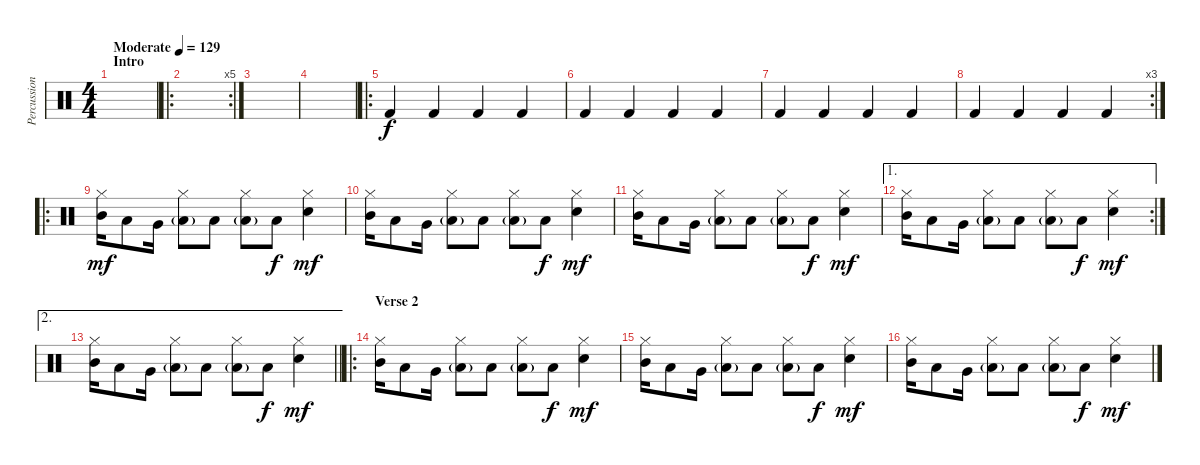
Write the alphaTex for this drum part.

\track ("Percussion" "Percussion") {instrument percussion}
\staff {score}
\articulation defaults
\ts (4 4)
\section ("" "Intro")
\tempo (129 "Moderate")
\clef neutral
\ks c
|
\ro
\rc 5
|
|
|
\ro "Kick (hit) 2".4 "Kick (hit) 2".4 "Kick (hit) 2".4 "Kick (hit) 2".4
|
"Kick (hit) 2".4 "Kick (hit) 2".4 "Kick (hit) 2".4 "Kick (hit) 2".4 |
"Kick (hit) 2".4 "Kick (hit) 2".4 "Kick (hit) 2".4 "Kick (hit) 2".4 |
\rc 3 "Kick (hit) 2".4 "Kick (hit) 2".4 "Kick (hit) 2".4 "Kick (hit) 2".4
|
\ro
("Mid Tom (hit)" "Hi-Hat (closed)").16{dy mf} "Low Tom (hit)".8 "Very Low Tom (hit)".16 ("Low Floor Tom (hit)"{g} "Hi-Hat (closed)").8 "Low Floor Tom (hit)".8 ("Low Floor Tom (hit)"{g} "Hi-Hat (closed)").8 "Low Floor Tom (hit)".8{dy f} ("Hi-Hat (closed)" "Electric Snare (hit)").4{dy mf} |
("Mid Tom (hit)" "Hi-Hat (closed)").16 "Low Tom (hit)".8 "Very Low Tom (hit)".16 ("Low Floor Tom (hit)"{g} "Hi-Hat (closed)").8 "Low Floor Tom (hit)".8 ("Low Floor Tom (hit)"{g} "Hi-Hat (closed)").8 "Low Floor Tom (hit)".8{dy f} ("Hi-Hat (closed)" "Electric Snare (hit)").4{dy mf} |
("Mid Tom (hit)" "Hi-Hat (closed)").16 "Low Tom (hit)".8 "Very Low Tom (hit)".16 ("Low Floor Tom (hit)"{g} "Hi-Hat (closed)").8 "Low Floor Tom (hit)".8 ("Low Floor Tom (hit)"{g} "Hi-Hat (closed)").8 "Low Floor Tom (hit)".8{dy f} ("Hi-Hat (closed)" "Electric Snare (hit)").4{dy mf} |
\ae 1
\rc 2
("Mid Tom (hit)" "Hi-Hat (closed)").16 "Low Tom (hit)".8 "Very Low Tom (hit)".16 ("Low Floor Tom (hit)"{g} "Hi-Hat (closed)").8 "Low Floor Tom (hit)".8 ("Low Floor Tom (hit)"{g} "Hi-Hat (closed)").8 "Low Floor Tom (hit)".8{dy f} ("Hi-Hat (closed)" "Electric Snare (hit)").4{dy mf} |
\ae 2
\barLineRight lightlight
("Mid Tom (hit)" "Hi-Hat (closed)").16 "Low Tom (hit)".8 "Very Low Tom (hit)".16 ("Low Floor Tom (hit)"{g} "Hi-Hat (closed)").8 "Low Floor Tom (hit)".8 ("Low Floor Tom (hit)"{g} "Hi-Hat (closed)").8 "Low Floor Tom (hit)".8{dy f} ("Hi-Hat (closed)" "Electric Snare (hit)").4{dy mf} |
\ro
\section ("" "Verse 2")
("Mid Tom (hit)" "Hi-Hat (closed)").16 "Low Tom (hit)".8 "Very Low Tom (hit)".16 ("Low Floor Tom (hit)"{g} "Hi-Hat (closed)").8 "Low Floor Tom (hit)".8 ("Low Floor Tom (hit)"{g} "Hi-Hat (closed)").8 "Low Floor Tom (hit)".8{dy f} ("Hi-Hat (closed)" "Electric Snare (hit)").4{dy mf} |
("Mid Tom (hit)" "Hi-Hat (closed)").16 "Low Tom (hit)".8 "Very Low Tom (hit)".16 ("Low Floor Tom (hit)"{g} "Hi-Hat (closed)").8 "Low Floor Tom (hit)".8 ("Low Floor Tom (hit)"{g} "Hi-Hat (closed)").8 "Low Floor Tom (hit)".8{dy f} ("Hi-Hat (closed)" "Electric Snare (hit)").4{dy mf} |
("Mid Tom (hit)" "Hi-Hat (closed)").16 "Low Tom (hit)".8 "Very Low Tom (hit)".16 ("Low Floor Tom (hit)"{g} "Hi-Hat (closed)").8 "Low Floor Tom (hit)".8 ("Low Floor Tom (hit)"{g} "Hi-Hat (closed)").8 "Low Floor Tom (hit)".8{dy f} ("Hi-Hat (closed)" "Electric Snare (hit)").4{dy mf}
